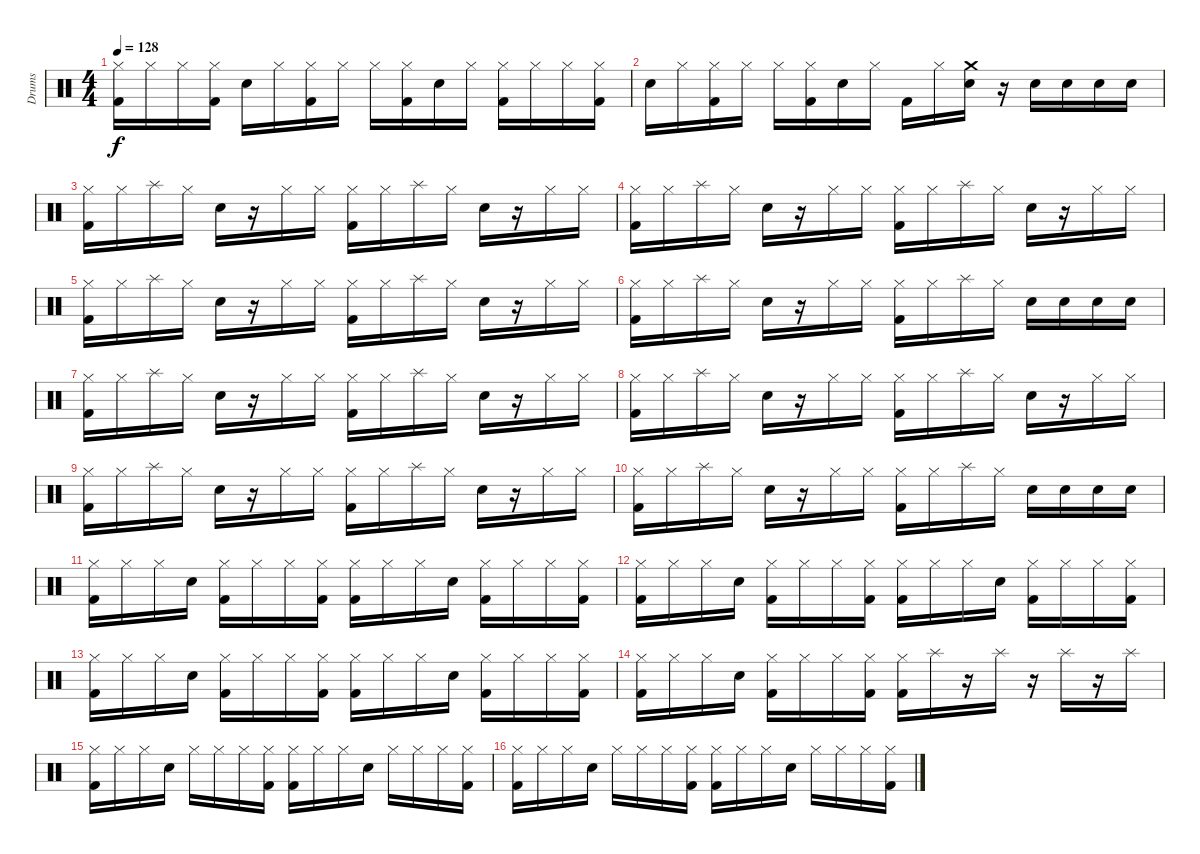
\track ("Drums" "Drums") {instrument percussion}
\staff {score}
\articulation defaults
\ts (4 4)
\tempo 128
\clef neutral
\ks c
("Hi-Hat (closed)" "Kick (hit) 2").16{dy f} "Hi-Hat (closed)".16 "Hi-Hat (closed)".16 ("Hi-Hat (closed)" "Kick (hit) 2").16 "Snare (hit) 2".16 "Hi-Hat (closed)".16 ("Hi-Hat (closed)" "Kick (hit) 2").16 "Hi-Hat (closed)".16 "Hi-Hat (closed)".16 ("Hi-Hat (closed)" "Kick (hit) 2").16 "Snare (hit) 2".16 "Hi-Hat (closed)".16 ("Hi-Hat (closed)" "Kick (hit) 2").16 "Hi-Hat (closed)".16 "Hi-Hat (closed)".16 ("Hi-Hat (closed)" "Kick (hit) 2").16 |
"Snare (hit) 2".16 "Hi-Hat (closed)".16 ("Hi-Hat (closed)" "Kick (hit) 2").16 "Hi-Hat (closed)".16 "Hi-Hat (closed)".16 ("Hi-Hat (closed)" "Kick (hit) 2").16 "Snare (hit) 2".16 "Hi-Hat (closed)".16 "Kick (hit) 2".16 "Hi-Hat (closed)".16 ("Crash medium (hit)" "Snare (hit) 2").16 r.16 "Snare (hit) 2".16 "Snare (hit) 2".16 "Snare (hit) 2".16 "Snare (hit) 2".16 |
("Hi-Hat (closed)" "Kick (hit) 2").16 "Hi-Hat (closed)".16 "Splash (hit)".16 "Hi-Hat (closed)".16 "Snare (hit) 2".16 r.16 "Hi-Hat (closed)".16 "Hi-Hat (closed)".16 ("Hi-Hat (closed)" "Kick (hit) 2").16 "Hi-Hat (closed)".16 "Splash (hit)".16 "Hi-Hat (closed)".16 "Snare (hit) 2".16 r.16 "Hi-Hat (closed)".16 "Hi-Hat (closed)".16 |
("Hi-Hat (closed)" "Kick (hit) 2").16 "Hi-Hat (closed)".16 "Splash (hit)".16 "Hi-Hat (closed)".16 "Snare (hit) 2".16 r.16 "Hi-Hat (closed)".16 "Hi-Hat (closed)".16 ("Hi-Hat (closed)" "Kick (hit) 2").16 "Hi-Hat (closed)".16 "Splash (hit)".16 "Hi-Hat (closed)".16 "Snare (hit) 2".16 r.16 "Hi-Hat (closed)".16 "Hi-Hat (closed)".16 |
("Hi-Hat (closed)" "Kick (hit) 2").16 "Hi-Hat (closed)".16 "Splash (hit)".16 "Hi-Hat (closed)".16 "Snare (hit) 2".16 r.16 "Hi-Hat (closed)".16 "Hi-Hat (closed)".16 ("Hi-Hat (closed)" "Kick (hit) 2").16 "Hi-Hat (closed)".16 "Splash (hit)".16 "Hi-Hat (closed)".16 "Snare (hit) 2".16 r.16 "Hi-Hat (closed)".16 "Hi-Hat (closed)".16 |
("Hi-Hat (closed)" "Kick (hit) 2").16 "Hi-Hat (closed)".16 "Splash (hit)".16 "Hi-Hat (closed)".16 "Snare (hit) 2".16 r.16 "Hi-Hat (closed)".16 "Hi-Hat (closed)".16 ("Hi-Hat (closed)" "Kick (hit) 2").16 "Hi-Hat (closed)".16 "Splash (hit)".16 "Hi-Hat (closed)".16 "Snare (hit) 2".16 "Snare (hit) 2".16 "Snare (hit) 2".16 "Snare (hit) 2".16 |
("Hi-Hat (closed)" "Kick (hit) 2").16 "Hi-Hat (closed)".16 "Splash (hit)".16 "Hi-Hat (closed)".16 "Snare (hit) 2".16 r.16 "Hi-Hat (closed)".16 "Hi-Hat (closed)".16 ("Hi-Hat (closed)" "Kick (hit) 2").16 "Hi-Hat (closed)".16 "Splash (hit)".16 "Hi-Hat (closed)".16 "Snare (hit) 2".16 r.16 "Hi-Hat (closed)".16 "Hi-Hat (closed)".16 |
("Hi-Hat (closed)" "Kick (hit) 2").16 "Hi-Hat (closed)".16 "Splash (hit)".16 "Hi-Hat (closed)".16 "Snare (hit) 2".16 r.16 "Hi-Hat (closed)".16 "Hi-Hat (closed)".16 ("Hi-Hat (closed)" "Kick (hit) 2").16 "Hi-Hat (closed)".16 "Splash (hit)".16 "Hi-Hat (closed)".16 "Snare (hit) 2".16 r.16 "Hi-Hat (closed)".16 "Hi-Hat (closed)".16 |
("Hi-Hat (closed)" "Kick (hit) 2").16 "Hi-Hat (closed)".16 "Splash (hit)".16 "Hi-Hat (closed)".16 "Snare (hit) 2".16 r.16 "Hi-Hat (closed)".16 "Hi-Hat (closed)".16 ("Hi-Hat (closed)" "Kick (hit) 2").16 "Hi-Hat (closed)".16 "Splash (hit)".16 "Hi-Hat (closed)".16 "Snare (hit) 2".16 r.16 "Hi-Hat (closed)".16 "Hi-Hat (closed)".16 |
("Hi-Hat (closed)" "Kick (hit) 2").16 "Hi-Hat (closed)".16 "Splash (hit)".16 "Hi-Hat (closed)".16 "Snare (hit) 2".16 r.16 "Hi-Hat (closed)".16 "Hi-Hat (closed)".16 ("Hi-Hat (closed)" "Kick (hit) 2").16 "Hi-Hat (closed)".16 "Splash (hit)".16 "Hi-Hat (closed)".16 "Snare (hit) 2".16 "Snare (hit) 2".16 "Snare (hit) 2".16 "Snare (hit) 2".16 |
("Hi-Hat (closed)" "Kick (hit) 2").16 "Hi-Hat (closed)".16 "Hi-Hat (closed)".16 "Snare (hit) 2".16 ("Hi-Hat (closed)" "Kick (hit) 2").16 "Hi-Hat (closed)".16 "Hi-Hat (closed)".16 ("Hi-Hat (closed)" "Kick (hit) 2").16 ("Hi-Hat (closed)" "Kick (hit) 2").16 "Hi-Hat (closed)".16 "Hi-Hat (closed)".16 "Snare (hit) 2".16 ("Hi-Hat (closed)" "Kick (hit) 2").16 "Hi-Hat (closed)".16 "Hi-Hat (closed)".16 ("Hi-Hat (closed)" "Kick (hit) 2").16 |
("Hi-Hat (closed)" "Kick (hit) 2").16 "Hi-Hat (closed)".16 "Hi-Hat (closed)".16 "Snare (hit) 2".16 ("Hi-Hat (closed)" "Kick (hit) 2").16 "Hi-Hat (closed)".16 "Hi-Hat (closed)".16 ("Hi-Hat (closed)" "Kick (hit) 2").16 ("Hi-Hat (closed)" "Kick (hit) 2").16 "Hi-Hat (closed)".16 "Hi-Hat (closed)".16 "Snare (hit) 2".16 ("Hi-Hat (closed)" "Kick (hit) 2").16 "Hi-Hat (closed)".16 "Hi-Hat (closed)".16 ("Hi-Hat (closed)" "Kick (hit) 2").16 |
("Hi-Hat (closed)" "Kick (hit) 2").16 "Hi-Hat (closed)".16 "Hi-Hat (closed)".16 "Snare (hit) 2".16 ("Hi-Hat (closed)" "Kick (hit) 2").16 "Hi-Hat (closed)".16 "Hi-Hat (closed)".16 ("Hi-Hat (closed)" "Kick (hit) 2").16 ("Hi-Hat (closed)" "Kick (hit) 2").16 "Hi-Hat (closed)".16 "Hi-Hat (closed)".16 "Snare (hit) 2".16 ("Hi-Hat (closed)" "Kick (hit) 2").16 "Hi-Hat (closed)".16 "Hi-Hat (closed)".16 ("Hi-Hat (closed)" "Kick (hit) 2").16 |
("Hi-Hat (closed)" "Kick (hit) 2").16 "Hi-Hat (closed)".16 "Hi-Hat (closed)".16 "Snare (hit) 2".16 ("Hi-Hat (closed)" "Kick (hit) 2").16 "Hi-Hat (closed)".16 "Hi-Hat (closed)".16 ("Hi-Hat (closed)" "Kick (hit) 2").16 ("Hi-Hat (closed)" "Kick (hit) 2").16 "Splash (hit)".16 r.16 "Splash (hit)".16 r.16 "Splash (hit)".16 r.16 "Splash (hit)".16 |
("Hi-Hat (closed)" "Kick (hit) 2").16 "Hi-Hat (closed)".16 "Hi-Hat (closed)".16 "Snare (hit) 2".16 "Hi-Hat (closed)".16 "Hi-Hat (closed)".16 "Hi-Hat (closed)".16 ("Hi-Hat (closed)" "Kick (hit) 2").16 ("Hi-Hat (closed)" "Kick (hit) 2").16 "Hi-Hat (closed)".16 "Hi-Hat (closed)".16 "Snare (hit) 2".16 "Hi-Hat (closed)".16 "Hi-Hat (closed)".16 "Hi-Hat (closed)".16 ("Hi-Hat (closed)" "Kick (hit) 2").16 |
("Hi-Hat (closed)" "Kick (hit) 2").16 "Hi-Hat (closed)".16 "Hi-Hat (closed)".16 "Snare (hit) 2".16 "Hi-Hat (closed)".16 "Hi-Hat (closed)".16 "Hi-Hat (closed)".16 ("Hi-Hat (closed)" "Kick (hit) 2").16 ("Hi-Hat (closed)" "Kick (hit) 2").16 "Hi-Hat (closed)".16 "Hi-Hat (closed)".16 "Snare (hit) 2".16 "Hi-Hat (closed)".16 "Hi-Hat (closed)".16 "Hi-Hat (closed)".16 ("Hi-Hat (closed)" "Kick (hit) 2").16
